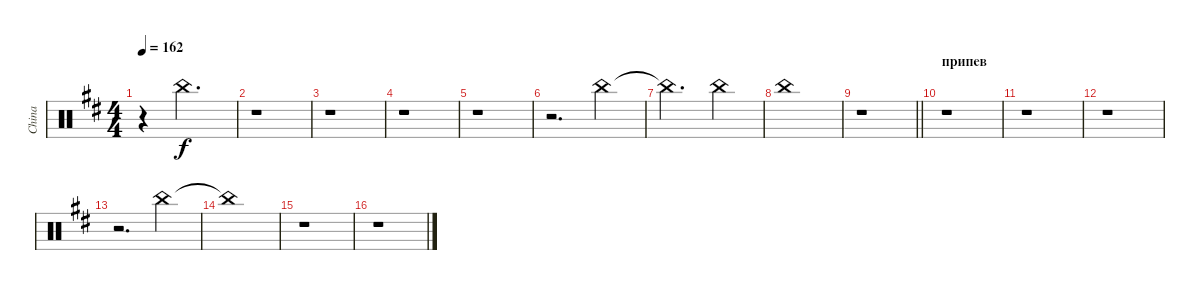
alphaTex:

\track ("China" "China") {instrument percussion}
\staff {score}
\articulation defaults
\ts (4 4)
\tempo 162
\clef neutral
\ks bminor
r.4{dy f} "China (hit)".2{d} |
r.1 |
r.1 |
r.1 |
r.1 |
r.2{d} "China (hit)".4 |
"China (hit)"{t}.2{d} "China (hit)".4 |
"China (hit)".1 |
\barLineRight lightlight
r.1 |
\section ("" "припев")
r.1 |
r.1 |
r.1 |
r.2{d} "China (hit)".4 |
"China (hit)"{t}.1 |
r.1 |
r.1
